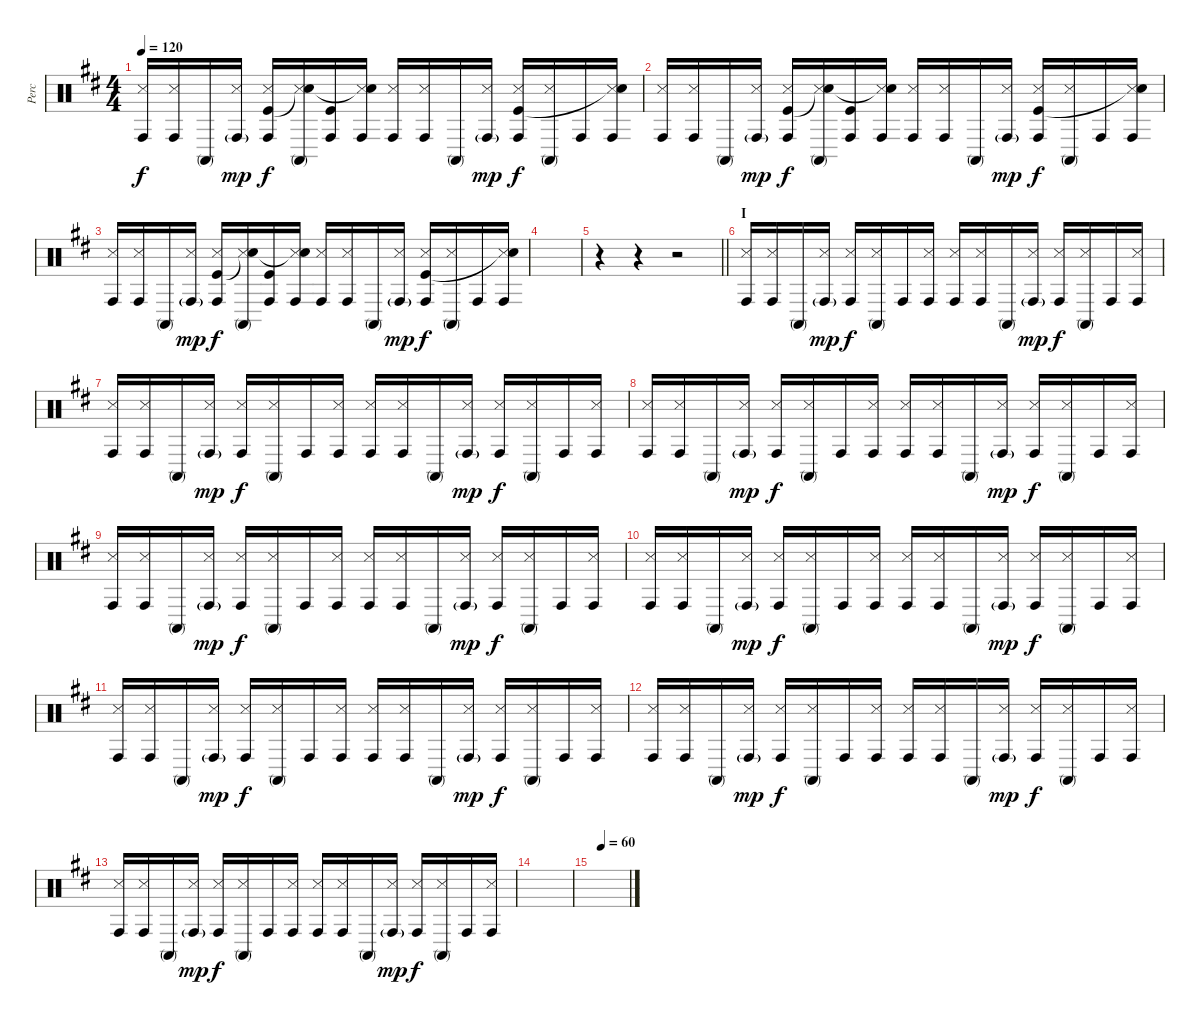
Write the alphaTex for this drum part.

\track ("Perc" "Perc") {instrument percussion}
\staff {score}
\articulation defaults
\ts (4 4)
\tempo 120
\clef neutral
\ks d
("Conga high (hit)" "Snare (side stick) 3").16{dy f} ("Conga high (hit)" "Snare (side stick) 3").16 "Conga high (mute)".16 ("Conga high (hit)"{g} "Snare (side stick) 3").16{dy mp} ("Conga high (hit)" "Snare (side stick) 3" "Kick (hit)").16{dy f} ("Conga high (mute)" "Snare (side stick) 3" "Snare (hit)"{t}).16 ("Conga high (hit)" "Kick (hit)").16 ("Conga high (hit)" "Snare (side stick) 3" "Snare (hit)"{t}).16 ("Conga high (hit)" "Snare (side stick) 3").16 ("Conga high (hit)" "Snare (side stick) 3").16 "Conga high (mute)".16 ("Conga high (hit)"{g} "Snare (side stick) 3").16{dy mp} ("Conga high (hit)" "Snare (side stick) 3" "Kick (hit)").16{dy f} ("Conga high (mute)" "Snare (side stick) 3").16 "Conga high (hit)".16 ("Conga high (hit)" "Snare (side stick) 3" "Snare (hit)"{t}).16 |
("Conga high (hit)" "Snare (side stick) 3").16 ("Conga high (hit)" "Snare (side stick) 3").16 "Conga high (mute)".16 ("Conga high (hit)"{g} "Snare (side stick) 3").16{dy mp} ("Conga high (hit)" "Snare (side stick) 3" "Kick (hit)").16{dy f} ("Conga high (mute)" "Snare (side stick) 3" "Snare (hit)"{t}).16 ("Conga high (hit)" "Kick (hit)").16 ("Conga high (hit)" "Snare (side stick) 3" "Snare (hit)"{t}).16 ("Conga high (hit)" "Snare (side stick) 3").16 ("Conga high (hit)" "Snare (side stick) 3").16 "Conga high (mute)".16 ("Conga high (hit)"{g} "Snare (side stick) 3").16{dy mp} ("Conga high (hit)" "Snare (side stick) 3" "Kick (hit)").16{dy f} ("Conga high (mute)" "Snare (side stick) 3").16 "Conga high (hit)".16 ("Conga high (hit)" "Snare (side stick) 3" "Snare (hit)"{t}).16 |
("Conga high (hit)" "Snare (side stick) 3").16 ("Conga high (hit)" "Snare (side stick) 3").16 "Conga high (mute)".16 ("Conga high (hit)"{g} "Snare (side stick) 3").16{dy mp} ("Conga high (hit)" "Snare (side stick) 3" "Kick (hit)").16{dy f} ("Conga high (mute)" "Snare (side stick) 3" "Snare (hit)"{t}).16 ("Conga high (hit)" "Kick (hit)").16 ("Conga high (hit)" "Snare (side stick) 3" "Snare (hit)"{t}).16 ("Conga high (hit)" "Snare (side stick) 3").16 ("Conga high (hit)" "Snare (side stick) 3").16 "Conga high (mute)".16 ("Conga high (hit)"{g} "Snare (side stick) 3").16{dy mp} ("Conga high (hit)" "Snare (side stick) 3" "Kick (hit)").16{dy f} ("Conga high (mute)" "Snare (side stick) 3").16 "Conga high (hit)".16 ("Conga high (hit)" "Snare (side stick) 3" "Snare (hit)"{t}).16 |
|
\barLineRight lightlight
r.4{txt ""} r.4 r.2 |
\section ("" "I")
("Conga high (hit)" "Snare (side stick) 3").16 ("Conga high (hit)" "Snare (side stick) 3").16 "Conga high (mute)".16 ("Conga high (hit)"{g} "Snare (side stick) 3").16{dy mp} ("Conga high (hit)" "Snare (side stick) 3").16{dy f} ("Conga high (mute)" "Snare (side stick) 3").16 "Conga high (hit)".16 ("Conga high (hit)" "Snare (side stick) 3").16 ("Conga high (hit)" "Snare (side stick) 3").16 ("Conga high (hit)" "Snare (side stick) 3").16 "Conga high (mute)".16 ("Conga high (hit)"{g} "Snare (side stick) 3").16{dy mp} ("Conga high (hit)" "Snare (side stick) 3").16{dy f} ("Conga high (mute)" "Snare (side stick) 3").16 "Conga high (hit)".16 ("Conga high (hit)" "Snare (side stick) 3").16 |
("Conga high (hit)" "Snare (side stick) 3").16 ("Conga high (hit)" "Snare (side stick) 3").16 "Conga high (mute)".16 ("Conga high (hit)"{g} "Snare (side stick) 3").16{dy mp} ("Conga high (hit)" "Snare (side stick) 3").16{dy f} ("Conga high (mute)" "Snare (side stick) 3").16 "Conga high (hit)".16 ("Conga high (hit)" "Snare (side stick) 3").16 ("Conga high (hit)" "Snare (side stick) 3").16 ("Conga high (hit)" "Snare (side stick) 3").16 "Conga high (mute)".16 ("Conga high (hit)"{g} "Snare (side stick) 3").16{dy mp} ("Conga high (hit)" "Snare (side stick) 3").16{dy f} ("Conga high (mute)" "Snare (side stick) 3").16 "Conga high (hit)".16 ("Conga high (hit)" "Snare (side stick) 3").16 |
("Conga high (hit)" "Snare (side stick) 3").16 ("Conga high (hit)" "Snare (side stick) 3").16 "Conga high (mute)".16 ("Conga high (hit)"{g} "Snare (side stick) 3").16{dy mp} ("Conga high (hit)" "Snare (side stick) 3").16{dy f} ("Conga high (mute)" "Snare (side stick) 3").16 "Conga high (hit)".16 ("Conga high (hit)" "Snare (side stick) 3").16 ("Conga high (hit)" "Snare (side stick) 3").16 ("Conga high (hit)" "Snare (side stick) 3").16 "Conga high (mute)".16 ("Conga high (hit)"{g} "Snare (side stick) 3").16{dy mp} ("Conga high (hit)" "Snare (side stick) 3").16{dy f} ("Conga high (mute)" "Snare (side stick) 3").16 "Conga high (hit)".16 ("Conga high (hit)" "Snare (side stick) 3").16 |
("Conga high (hit)" "Snare (side stick) 3").16 ("Conga high (hit)" "Snare (side stick) 3").16 "Conga high (mute)".16 ("Conga high (hit)"{g} "Snare (side stick) 3").16{dy mp} ("Conga high (hit)" "Snare (side stick) 3").16{dy f} ("Conga high (mute)" "Snare (side stick) 3").16 "Conga high (hit)".16 ("Conga high (hit)" "Snare (side stick) 3").16 ("Conga high (hit)" "Snare (side stick) 3").16 ("Conga high (hit)" "Snare (side stick) 3").16 "Conga high (mute)".16 ("Conga high (hit)"{g} "Snare (side stick) 3").16{dy mp} ("Conga high (hit)" "Snare (side stick) 3").16{dy f} ("Conga high (mute)" "Snare (side stick) 3").16 "Conga high (hit)".16 ("Conga high (hit)" "Snare (side stick) 3").16 |
("Conga high (hit)" "Snare (side stick) 3").16 ("Conga high (hit)" "Snare (side stick) 3").16 "Conga high (mute)".16 ("Conga high (hit)"{g} "Snare (side stick) 3").16{dy mp} ("Conga high (hit)" "Snare (side stick) 3").16{dy f} ("Conga high (mute)" "Snare (side stick) 3").16 "Conga high (hit)".16 ("Conga high (hit)" "Snare (side stick) 3").16 ("Conga high (hit)" "Snare (side stick) 3").16 ("Conga high (hit)" "Snare (side stick) 3").16 "Conga high (mute)".16 ("Conga high (hit)"{g} "Snare (side stick) 3").16{dy mp} ("Conga high (hit)" "Snare (side stick) 3").16{dy f} ("Conga high (mute)" "Snare (side stick) 3").16 "Conga high (hit)".16 ("Conga high (hit)" "Snare (side stick) 3").16 |
("Conga high (hit)" "Snare (side stick) 3").16 ("Conga high (hit)" "Snare (side stick) 3").16 "Conga high (mute)".16 ("Conga high (hit)"{g} "Snare (side stick) 3").16{dy mp} ("Conga high (hit)" "Snare (side stick) 3").16{dy f} ("Conga high (mute)" "Snare (side stick) 3").16 "Conga high (hit)".16 ("Conga high (hit)" "Snare (side stick) 3").16 ("Conga high (hit)" "Snare (side stick) 3").16 ("Conga high (hit)" "Snare (side stick) 3").16 "Conga high (mute)".16 ("Conga high (hit)"{g} "Snare (side stick) 3").16{dy mp} ("Conga high (hit)" "Snare (side stick) 3").16{dy f} ("Conga high (mute)" "Snare (side stick) 3").16 "Conga high (hit)".16 ("Conga high (hit)" "Snare (side stick) 3").16 |
("Conga high (hit)" "Snare (side stick) 3").16 ("Conga high (hit)" "Snare (side stick) 3").16 "Conga high (mute)".16 ("Conga high (hit)"{g} "Snare (side stick) 3").16{dy mp} ("Conga high (hit)" "Snare (side stick) 3").16{dy f} ("Conga high (mute)" "Snare (side stick) 3").16 "Conga high (hit)".16 ("Conga high (hit)" "Snare (side stick) 3").16 ("Conga high (hit)" "Snare (side stick) 3").16 ("Conga high (hit)" "Snare (side stick) 3").16 "Conga high (mute)".16 ("Conga high (hit)"{g} "Snare (side stick) 3").16{dy mp} ("Conga high (hit)" "Snare (side stick) 3").16{dy f} ("Conga high (mute)" "Snare (side stick) 3").16 "Conga high (hit)".16 ("Conga high (hit)" "Snare (side stick) 3").16 |
("Conga high (hit)" "Snare (side stick) 3").16 ("Conga high (hit)" "Snare (side stick) 3").16 "Conga high (mute)".16 ("Conga high (hit)"{g} "Snare (side stick) 3").16{dy mp} ("Conga high (hit)" "Snare (side stick) 3").16{dy f} ("Conga high (mute)" "Snare (side stick) 3").16 "Conga high (hit)".16 ("Conga high (hit)" "Snare (side stick) 3").16 ("Conga high (hit)" "Snare (side stick) 3").16 ("Conga high (hit)" "Snare (side stick) 3").16 "Conga high (mute)".16 ("Conga high (hit)"{g} "Snare (side stick) 3").16{dy mp} ("Conga high (hit)" "Snare (side stick) 3").16{dy f} ("Conga high (mute)" "Snare (side stick) 3").16 "Conga high (hit)".16 ("Conga high (hit)" "Snare (side stick) 3").16 |
|
\tempo (60 0.25)
